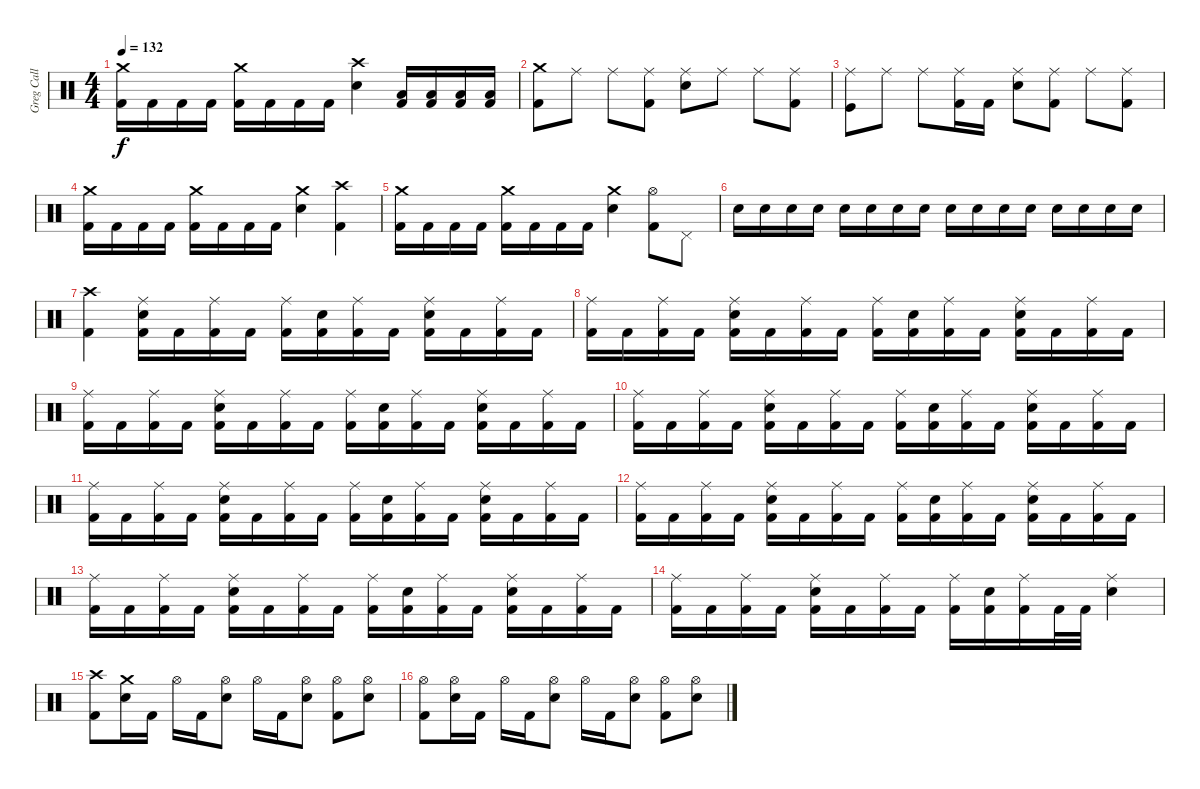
\track ("Greg Call (Drums)" "Greg Call ") {instrument percussion}
\staff {score}
\articulation defaults
\ts (4 4)
\tempo 132
\clef neutral
\ks c
("Crash medium (hit)" "Kick (hit) 2").16{dy f} "Kick (hit) 2".16 "Kick (hit) 2".16 "Kick (hit) 2".16 ("Crash medium (hit)" "Kick (hit) 2").16 "Kick (hit) 2".16 "Kick (hit) 2".16 "Kick (hit) 2".16 ("Crash high (hit)" "Snare (hit) 2").4 ("Low Floor Tom (hit)" "Kick (hit) 2").16 ("Low Floor Tom (hit)" "Kick (hit) 2").16 ("Low Floor Tom (hit)" "Kick (hit) 2").16 ("Low Floor Tom (hit)" "Kick (hit) 2").16 |
("Crash medium (hit)" "Kick (hit) 2").8 "Ride (middle)".8 "Ride (middle)".8 ("Ride (middle)" "Kick (hit) 2").8 ("Ride (middle)" "Snare (hit) 2").8 "Ride (middle)".8 "Ride (middle)".8 ("Ride (middle)" "Kick (hit) 2").8 |
("Ride (middle)" "Kick (hit)").8 "Ride (middle)".8 "Ride (middle)".8 ("Ride (middle)" "Kick (hit) 2").16 "Kick (hit) 2".16 ("Ride (middle)" "Snare (hit) 2").8 ("Ride (middle)" "Kick (hit) 2").8 "Ride (middle)".8 ("Ride (middle)" "Kick (hit) 2").8 |
("Crash medium (hit)" "Kick (hit) 2").16 "Kick (hit) 2".16 "Kick (hit) 2".16 "Kick (hit) 2".16 ("Crash medium (hit)" "Kick (hit) 2").16 "Kick (hit) 2".16 "Kick (hit) 2".16 "Kick (hit) 2".16 ("Crash medium (hit)" "Snare (hit) 2").4 ("Crash high (hit)" "Kick (hit) 2").4 |
("Crash medium (hit)" "Kick (hit) 2").16 "Kick (hit) 2".16 "Kick (hit) 2".16 "Kick (hit) 2".16 ("Crash medium (hit)" "Kick (hit) 2").16 "Kick (hit) 2".16 "Kick (hit) 2".16 "Kick (hit) 2".16 ("Crash medium (hit)" "Snare (hit) 2").4 ("Kick (hit) 2" "Hi-Hat (open)").8 "Pedal Hi-Hat (hit)".8 |
"Snare (hit) 2".16 "Snare (hit) 2".16 "Snare (hit) 2".16 "Snare (hit) 2".16 "Snare (hit) 2".16 "Snare (hit) 2".16 "Snare (hit) 2".16 "Snare (hit) 2".16 "Snare (hit) 2".16 "Snare (hit) 2".16 "Snare (hit) 2".16 "Snare (hit) 2".16 "Snare (hit) 2".16 "Snare (hit) 2".16 "Snare (hit) 2".16 "Snare (hit) 2".16 |
("Crash high (hit)" "Kick (hit) 2").4 ("Ride (middle)" "Kick (hit) 2" "Snare (hit) 2").16 "Kick (hit) 2".16 ("Ride (middle)" "Kick (hit) 2").16 "Kick (hit) 2".16 ("Ride (middle)" "Kick (hit) 2").16 ("Kick (hit) 2" "Snare (hit) 2").16 ("Ride (middle)" "Kick (hit) 2").16 "Kick (hit) 2".16 ("Ride (middle)" "Kick (hit) 2" "Snare (hit) 2").16 "Kick (hit) 2".16 ("Ride (middle)" "Kick (hit) 2").16 "Kick (hit) 2".16 |
("Ride (middle)" "Kick (hit) 2").16 "Kick (hit) 2".16 ("Ride (middle)" "Kick (hit) 2").16 "Kick (hit) 2".16 ("Ride (middle)" "Snare (hit) 2" "Kick (hit) 2").16 "Kick (hit) 2".16 ("Ride (middle)" "Kick (hit) 2").16 "Kick (hit) 2".16 ("Ride (middle)" "Kick (hit) 2").16 ("Snare (hit) 2" "Kick (hit) 2").16 ("Ride (middle)" "Kick (hit) 2").16 "Kick (hit) 2".16 ("Ride (middle)" "Snare (hit) 2" "Kick (hit) 2").16 "Kick (hit) 2".16 ("Ride (middle)" "Kick (hit) 2").16 "Kick (hit) 2".16 |
("Ride (middle)" "Kick (hit) 2").16 "Kick (hit) 2".16 ("Ride (middle)" "Kick (hit) 2").16 "Kick (hit) 2".16 ("Ride (middle)" "Snare (hit) 2" "Kick (hit) 2").16 "Kick (hit) 2".16 ("Ride (middle)" "Kick (hit) 2").16 "Kick (hit) 2".16 ("Ride (middle)" "Kick (hit) 2").16 ("Snare (hit) 2" "Kick (hit) 2").16 ("Ride (middle)" "Kick (hit) 2").16 "Kick (hit) 2".16 ("Ride (middle)" "Snare (hit) 2" "Kick (hit) 2").16 "Kick (hit) 2".16 ("Ride (middle)" "Kick (hit) 2").16 "Kick (hit) 2".16 |
("Ride (middle)" "Kick (hit) 2").16 "Kick (hit) 2".16 ("Ride (middle)" "Kick (hit) 2").16 "Kick (hit) 2".16 ("Ride (middle)" "Snare (hit) 2" "Kick (hit) 2").16 "Kick (hit) 2".16 ("Ride (middle)" "Kick (hit) 2").16 "Kick (hit) 2".16 ("Ride (middle)" "Kick (hit) 2").16 ("Snare (hit) 2" "Kick (hit) 2").16 ("Ride (middle)" "Kick (hit) 2").16 "Kick (hit) 2".16 ("Ride (middle)" "Snare (hit) 2" "Kick (hit) 2").16 "Kick (hit) 2".16 ("Ride (middle)" "Kick (hit) 2").16 "Kick (hit) 2".16 |
("Ride (middle)" "Kick (hit) 2").16 "Kick (hit) 2".16 ("Ride (middle)" "Kick (hit) 2").16 "Kick (hit) 2".16 ("Ride (middle)" "Snare (hit) 2" "Kick (hit) 2").16 "Kick (hit) 2".16 ("Ride (middle)" "Kick (hit) 2").16 "Kick (hit) 2".16 ("Ride (middle)" "Kick (hit) 2").16 ("Snare (hit) 2" "Kick (hit) 2").16 ("Ride (middle)" "Kick (hit) 2").16 "Kick (hit) 2".16 ("Ride (middle)" "Snare (hit) 2" "Kick (hit) 2").16 "Kick (hit) 2".16 ("Ride (middle)" "Kick (hit) 2").16 "Kick (hit) 2".16 |
("Ride (middle)" "Kick (hit) 2").16 "Kick (hit) 2".16 ("Ride (middle)" "Kick (hit) 2").16 "Kick (hit) 2".16 ("Ride (middle)" "Snare (hit) 2" "Kick (hit) 2").16 "Kick (hit) 2".16 ("Ride (middle)" "Kick (hit) 2").16 "Kick (hit) 2".16 ("Ride (middle)" "Kick (hit) 2").16 ("Snare (hit) 2" "Kick (hit) 2").16 ("Ride (middle)" "Kick (hit) 2").16 "Kick (hit) 2".16 ("Ride (middle)" "Snare (hit) 2" "Kick (hit) 2").16 "Kick (hit) 2".16 ("Ride (middle)" "Kick (hit) 2").16 "Kick (hit) 2".16 |
("Ride (middle)" "Kick (hit) 2").16 "Kick (hit) 2".16 ("Ride (middle)" "Kick (hit) 2").16 "Kick (hit) 2".16 ("Ride (middle)" "Snare (hit) 2" "Kick (hit) 2").16 "Kick (hit) 2".16 ("Ride (middle)" "Kick (hit) 2").16 "Kick (hit) 2".16 ("Ride (middle)" "Kick (hit) 2").16 ("Snare (hit) 2" "Kick (hit) 2").16 ("Ride (middle)" "Kick (hit) 2").16 "Kick (hit) 2".16 ("Ride (middle)" "Snare (hit) 2" "Kick (hit) 2").16 "Kick (hit) 2".16 ("Ride (middle)" "Kick (hit) 2").16 "Kick (hit) 2".16 |
("Ride (middle)" "Kick (hit) 2").16 "Kick (hit) 2".16 ("Ride (middle)" "Kick (hit) 2").16 "Kick (hit) 2".16 ("Ride (middle)" "Snare (hit) 2" "Kick (hit) 2").16 "Kick (hit) 2".16 ("Ride (middle)" "Kick (hit) 2").16 "Kick (hit) 2".16 ("Ride (middle)" "Kick (hit) 2").16 ("Snare (hit) 2" "Kick (hit) 2").16 ("Ride (middle)" "Kick (hit) 2").16 "Kick (hit) 2".32 "Kick (hit) 2".32 ("Ride (middle)" "Snare (hit) 2").4 |
("Crash high (hit)" "Kick (hit) 2").8 ("Crash medium (hit)" "Snare (hit) 2").16 "Kick (hit) 2".16 "Hi-Hat (open)".16 "Kick (hit) 2".16 ("Hi-Hat (open)" "Snare (hit) 2").8 "Hi-Hat (open)".16 "Kick (hit) 2".16 ("Hi-Hat (open)" "Snare (hit) 2").8 ("Hi-Hat (open)" "Kick (hit) 2").8 ("Hi-Hat (open)" "Snare (hit) 2").8 |
("Hi-Hat (open)" "Kick (hit) 2").8 ("Hi-Hat (open)" "Snare (hit) 2").16 "Kick (hit) 2".16 "Hi-Hat (open)".16 "Kick (hit) 2".16 ("Hi-Hat (open)" "Snare (hit) 2").8 "Hi-Hat (open)".16 "Kick (hit) 2".16 ("Hi-Hat (open)" "Snare (hit) 2").8 ("Hi-Hat (open)" "Kick (hit) 2").8 ("Hi-Hat (open)" "Snare (hit) 2").8
